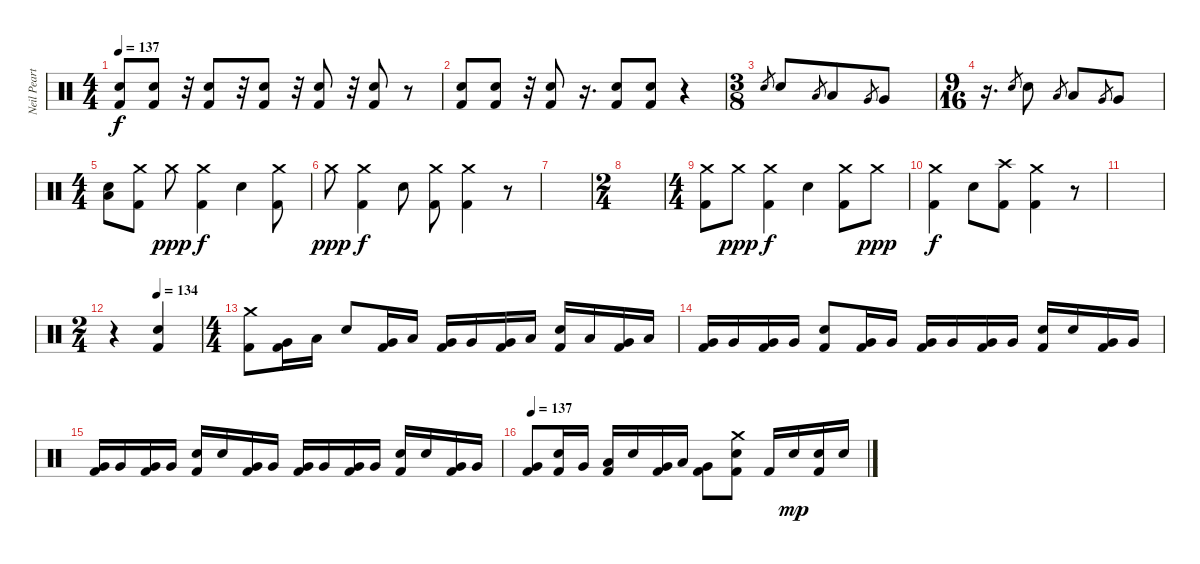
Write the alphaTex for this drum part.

\track ("Neil Peart, Percusión" "Neil Peart") {instrument percussion}
\staff {score}
\articulation defaults
\ts (4 4)
\tempo 137
\clef neutral
\ks c
("Electric Snare (hit)" "Kick (hit) 2").8{dy f volume 13} ("Electric Snare (hit)" "Kick (hit) 2").8 r.32 ("Electric Snare (hit)" "Kick (hit) 2").8{volume 10} r.32 ("Electric Snare (hit)" "Kick (hit) 2").8{volume 8} r.32 ("Electric Snare (hit)" "Kick (hit) 2").8{volume 5} r.32 ("Electric Snare (hit)" "Kick (hit) 2").8{volume 2} r.8 |
("Electric Snare (hit)" "Kick (hit) 2").8{volume 13} ("Electric Snare (hit)" "Kick (hit) 2").8 r.32 ("Electric Snare (hit)" "Kick (hit) 2").8{volume 7} r.16{d} ("Electric Snare (hit)" "Kick (hit) 2").8{volume 13} ("Electric Snare (hit)" "Kick (hit) 2").8 r.4 |
\ts (3 8)
"Electric Snare (hit)".8{gr} "Electric Snare (hit)".8 "Low Tom (hit)".8{gr} "Low Tom (hit)".8 "Very Low Tom (hit)".8{gr} "Very Low Tom (hit)".8 |
\ts (9 16)
r.16{d} "Electric Snare (hit)".8{gr} "Electric Snare (hit)".8 "Low Tom (hit)".8{gr} "Low Tom (hit)".8 "Very Low Tom (hit)".8{gr} "Very Low Tom (hit)".8 |
\ts (4 4)
("Electric Snare (hit)" "Low Floor Tom (hit)").8 ("Crash medium (hit)" "Kick (hit) 2").8 "Crash medium (hit)".8{dy ppp} ("Crash medium (hit)" "Kick (hit) 2").4{dy f} "Electric Snare (hit)".4 ("Crash medium (hit)" "Kick (hit) 2").8 |
"Crash medium (hit)".8{dy ppp} ("Crash medium (hit)" "Kick (hit) 2").4{dy f} "Electric Snare (hit)".8 ("Crash medium (hit)" "Kick (hit) 2").8 ("Crash medium (hit)" "Kick (hit) 2").4 r.8 |
|
\ts (2 4)
|
\ts (4 4)
("Crash medium (hit)" "Kick (hit) 2").8 "Crash medium (hit)".8{dy ppp} ("Crash medium (hit)" "Kick (hit) 2").4{dy f} "Electric Snare (hit)".4 ("Crash medium (hit)" "Kick (hit) 2").8 "Crash medium (hit)".8{dy ppp} |
("Crash medium (hit)" "Kick (hit) 2").4{dy f} "Electric Snare (hit)".8 ("Crash high (hit)" "Kick (hit) 2").8 ("Crash medium (hit)" "Kick (hit) 2").4 r.8 |
|
\ts (2 4)
\tempo (134 0.5)
r.4 ("Electric Snare (hit)" "Kick (hit) 2").4 |
\ts (4 4)
("Crash medium (hit)" "Kick (hit) 2").8 ("Kick (hit) 2" "Very Low Tom (hit)").16 "Low Tom (hit)".16 "Electric Snare (hit)".8 ("Kick (hit) 2" "Very Low Tom (hit)").16 "Low Tom (hit)".16 ("Kick (hit) 2" "Very Low Tom (hit)").16 "Very Low Tom (hit)".16 ("Kick (hit) 2" "Very Low Tom (hit)").16 "Low Tom (hit)".16 ("Electric Snare (hit)" "Kick (hit) 2").16 "Low Tom (hit)".16 ("Kick (hit) 2" "Very Low Tom (hit)").16 "Low Tom (hit)".16 |
("Kick (hit) 2" "Very Low Tom (hit)").16 "Very Low Tom (hit)".16 ("Kick (hit) 2" "Very Low Tom (hit)").16 "Very Low Tom (hit)".16 ("Electric Snare (hit)" "Kick (hit) 2").8 ("Kick (hit) 2" "Very Low Tom (hit)").16 "Very Low Tom (hit)".16 ("Kick (hit) 2" "Very Low Tom (hit)").16 "Very Low Tom (hit)".16 ("Kick (hit) 2" "Very Low Tom (hit)").16 "Very Low Tom (hit)".16 ("Electric Snare (hit)" "Kick (hit) 2").16 "Electric Snare (hit)".16 ("Kick (hit) 2" "Very Low Tom (hit)").16 "Very Low Tom (hit)".16 |
("Kick (hit) 2" "Very Low Tom (hit)").16 "Very Low Tom (hit)".16 ("Kick (hit) 2" "Very Low Tom (hit)").16 "Very Low Tom (hit)".16 ("Electric Snare (hit)" "Kick (hit) 2").16 "Electric Snare (hit)".16 ("Kick (hit) 2" "Very Low Tom (hit)").16 "Very Low Tom (hit)".16 ("Kick (hit) 2" "Very Low Tom (hit)").16 "Very Low Tom (hit)".16 ("Kick (hit) 2" "Very Low Tom (hit)").16 "Very Low Tom (hit)".16 ("Electric Snare (hit)" "Kick (hit) 2").16 "Electric Snare (hit)".16 ("Kick (hit) 2" "Very Low Tom (hit)").16 "Very Low Tom (hit)".16 |
\tempo 137
("Kick (hit) 2" "Very Low Tom (hit)").8 ("Electric Snare (hit)" "Kick (hit) 2").16 "Very Low Tom (hit)".16 ("Kick (hit) 2" "Low Tom (hit)").16 "Electric Snare (hit)".16 ("Kick (hit) 2" "Very Low Tom (hit)").16 "Low Tom (hit)".16 ("Kick (hit) 2" "Very Low Tom (hit)").8 ("Crash medium (hit)" "Electric Snare (hit)" "Kick (hit) 2").8 "Kick (hit) 2".16 "Electric Snare (hit)".16{dy mp} ("Electric Snare (hit)" "Kick (hit) 2").16 "Electric Snare (hit)".16
